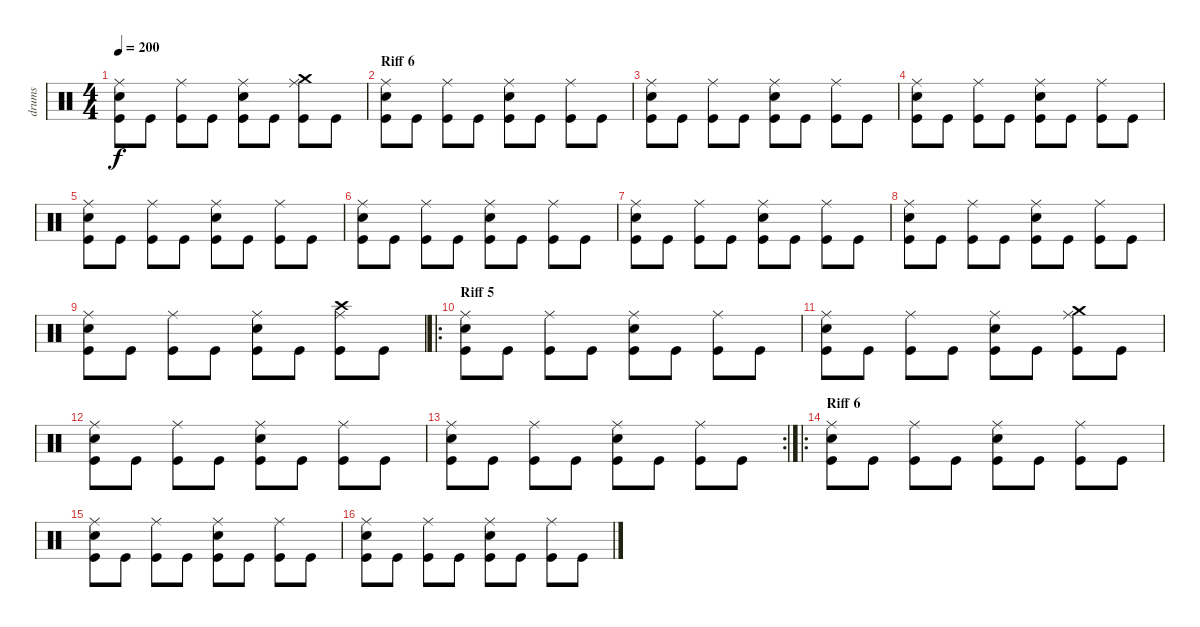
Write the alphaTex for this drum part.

\track ("drums" "drums") {instrument percussion}
\staff {score}
\articulation defaults
\ts (4 4)
\tempo 200
\clef neutral
\ks c
("Ride (middle)" "Snare (hit) 2" "Kick (hit)").8{dy f} "Kick (hit)".8 ("Ride (middle)" "Kick (hit)").8 "Kick (hit)".8 ("Ride (middle)" "Snare (hit) 2" "Kick (hit)").8 "Kick (hit)".8 ("Ride (middle)" "Crash medium (hit)" "Kick (hit)").8 "Kick (hit)".8 |
\section ("" "Riff 6")
("Ride (middle)" "Snare (hit) 2" "Kick (hit)").8 "Kick (hit)".8 ("Ride (middle)" "Kick (hit)").8 "Kick (hit)".8 ("Ride (middle)" "Snare (hit) 2" "Kick (hit)").8 "Kick (hit)".8 ("Ride (middle)" "Kick (hit)").8 "Kick (hit)".8 |
("Ride (middle)" "Snare (hit) 2" "Kick (hit)").8 "Kick (hit)".8 ("Ride (middle)" "Kick (hit)").8 "Kick (hit)".8 ("Ride (middle)" "Snare (hit) 2" "Kick (hit)").8 "Kick (hit)".8 ("Ride (middle)" "Kick (hit)").8 "Kick (hit)".8 |
("Ride (middle)" "Snare (hit) 2" "Kick (hit)").8 "Kick (hit)".8 ("Ride (middle)" "Kick (hit)").8 "Kick (hit)".8 ("Ride (middle)" "Snare (hit) 2" "Kick (hit)").8 "Kick (hit)".8 ("Ride (middle)" "Kick (hit)").8 "Kick (hit)".8 |
("Ride (middle)" "Snare (hit) 2" "Kick (hit)").8 "Kick (hit)".8 ("Ride (middle)" "Kick (hit)").8 "Kick (hit)".8 ("Ride (middle)" "Snare (hit) 2" "Kick (hit)").8 "Kick (hit)".8 ("Ride (middle)" "Kick (hit)").8 "Kick (hit)".8 |
("Ride (middle)" "Snare (hit) 2" "Kick (hit)").8 "Kick (hit)".8 ("Ride (middle)" "Kick (hit)").8 "Kick (hit)".8 ("Ride (middle)" "Snare (hit) 2" "Kick (hit)").8 "Kick (hit)".8 ("Ride (middle)" "Kick (hit)").8 "Kick (hit)".8 |
("Ride (middle)" "Snare (hit) 2" "Kick (hit)").8 "Kick (hit)".8 ("Ride (middle)" "Kick (hit)").8 "Kick (hit)".8 ("Ride (middle)" "Snare (hit) 2" "Kick (hit)").8 "Kick (hit)".8 ("Ride (middle)" "Kick (hit)").8 "Kick (hit)".8 |
("Ride (middle)" "Snare (hit) 2" "Kick (hit)").8 "Kick (hit)".8 ("Ride (middle)" "Kick (hit)").8 "Kick (hit)".8 ("Ride (middle)" "Snare (hit) 2" "Kick (hit)").8 "Kick (hit)".8 ("Ride (middle)" "Kick (hit)").8 "Kick (hit)".8 |
("Ride (middle)" "Snare (hit) 2" "Kick (hit)").8 "Kick (hit)".8 ("Ride (middle)" "Kick (hit)").8 "Kick (hit)".8 ("Ride (middle)" "Snare (hit) 2" "Kick (hit)").8 "Kick (hit)".8 ("Ride (middle)" "Crash high (hit)" "Kick (hit)").8 "Kick (hit)".8 |
\ro
\section ("" "Riff 5")
("Ride (middle)" "Snare (hit) 2" "Kick (hit)").8 "Kick (hit)".8 ("Ride (middle)" "Kick (hit)").8 "Kick (hit)".8 ("Ride (middle)" "Snare (hit) 2" "Kick (hit)").8 "Kick (hit)".8 ("Ride (middle)" "Kick (hit)").8 "Kick (hit)".8 |
("Ride (middle)" "Snare (hit) 2" "Kick (hit)").8 "Kick (hit)".8 ("Ride (middle)" "Kick (hit)").8 "Kick (hit)".8 ("Ride (middle)" "Snare (hit) 2" "Kick (hit)").8 "Kick (hit)".8 ("Ride (middle)" "Crash medium (hit)" "Kick (hit)").8 "Kick (hit)".8 |
("Ride (middle)" "Snare (hit) 2" "Kick (hit)").8 "Kick (hit)".8 ("Ride (middle)" "Kick (hit)").8 "Kick (hit)".8 ("Ride (middle)" "Snare (hit) 2" "Kick (hit)").8 "Kick (hit)".8 ("Ride (middle)" "Kick (hit)").8 "Kick (hit)".8 |
\rc 2
("Ride (middle)" "Snare (hit) 2" "Kick (hit)").8 "Kick (hit)".8 ("Ride (middle)" "Kick (hit)").8 "Kick (hit)".8 ("Ride (middle)" "Snare (hit) 2" "Kick (hit)").8 "Kick (hit)".8 ("Ride (middle)" "Kick (hit)").8 "Kick (hit)".8 |
\ro
\section ("" "Riff 6")
("Ride (middle)" "Snare (hit) 2" "Kick (hit)").8 "Kick (hit)".8 ("Ride (middle)" "Kick (hit)").8 "Kick (hit)".8 ("Ride (middle)" "Snare (hit) 2" "Kick (hit)").8 "Kick (hit)".8 ("Ride (middle)" "Kick (hit)").8 "Kick (hit)".8 |
("Ride (middle)" "Snare (hit) 2" "Kick (hit)").8 "Kick (hit)".8 ("Ride (middle)" "Kick (hit)").8 "Kick (hit)".8 ("Ride (middle)" "Snare (hit) 2" "Kick (hit)").8 "Kick (hit)".8 ("Ride (middle)" "Kick (hit)").8 "Kick (hit)".8 |
("Ride (middle)" "Snare (hit) 2" "Kick (hit)").8 "Kick (hit)".8 ("Ride (middle)" "Kick (hit)").8 "Kick (hit)".8 ("Ride (middle)" "Snare (hit) 2" "Kick (hit)").8 "Kick (hit)".8 ("Ride (middle)" "Kick (hit)").8 "Kick (hit)".8
